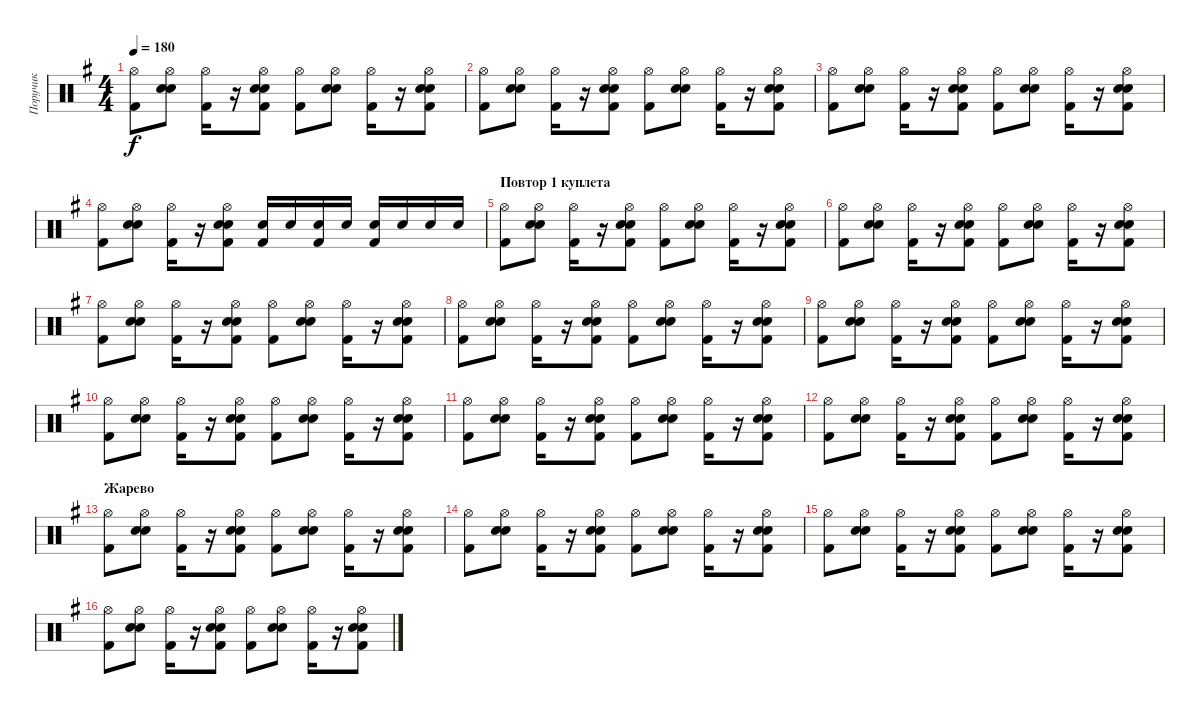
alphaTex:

\track ("Поручик" "Поручик") {instrument percussion}
\staff {score}
\articulation defaults
\ts (4 4)
\tempo 180
\clef neutral
\ks g
("Kick (hit) 2" "Hi-Hat (open)").8{dy f} ("Hi-Hat (open)" "Electric Snare (hit)" "Electric Snare (hit)").8 ("Kick (hit) 2" "Hi-Hat (open)").16 r.16 ("Kick (hit) 2" "Hi-Hat (open)" "Electric Snare (hit)" "Electric Snare (hit)").8 ("Kick (hit) 2" "Hi-Hat (open)").8 ("Hi-Hat (open)" "Electric Snare (hit)" "Electric Snare (hit)").8 ("Kick (hit) 2" "Hi-Hat (open)").16 r.16 ("Kick (hit) 2" "Hi-Hat (open)" "Electric Snare (hit)" "Electric Snare (hit)").8 |
("Kick (hit) 2" "Hi-Hat (open)").8 ("Hi-Hat (open)" "Electric Snare (hit)" "Electric Snare (hit)").8 ("Kick (hit) 2" "Hi-Hat (open)").16 r.16 ("Kick (hit) 2" "Hi-Hat (open)" "Electric Snare (hit)" "Electric Snare (hit)").8 ("Kick (hit) 2" "Hi-Hat (open)").8 ("Hi-Hat (open)" "Electric Snare (hit)" "Electric Snare (hit)").8 ("Kick (hit) 2" "Hi-Hat (open)").16 r.16 ("Kick (hit) 2" "Hi-Hat (open)" "Electric Snare (hit)" "Electric Snare (hit)").8 |
("Kick (hit) 2" "Hi-Hat (open)").8 ("Hi-Hat (open)" "Electric Snare (hit)" "Electric Snare (hit)").8 ("Kick (hit) 2" "Hi-Hat (open)").16 r.16 ("Kick (hit) 2" "Hi-Hat (open)" "Electric Snare (hit)" "Electric Snare (hit)").8 ("Kick (hit) 2" "Hi-Hat (open)").8 ("Hi-Hat (open)" "Electric Snare (hit)" "Electric Snare (hit)").8 ("Kick (hit) 2" "Hi-Hat (open)").16 r.16 ("Kick (hit) 2" "Hi-Hat (open)" "Electric Snare (hit)" "Electric Snare (hit)").8 |
("Kick (hit) 2" "Hi-Hat (open)").8 ("Hi-Hat (open)" "Electric Snare (hit)" "Electric Snare (hit)").8 ("Kick (hit) 2" "Hi-Hat (open)").16 r.16 ("Kick (hit) 2" "Hi-Hat (open)" "Electric Snare (hit)" "Electric Snare (hit)").8 ("Kick (hit) 2" "Electric Snare (hit)").16 "Electric Snare (hit)".16 ("Kick (hit) 2" "Electric Snare (hit)").16 "Electric Snare (hit)".16 ("Kick (hit) 2" "Electric Snare (hit)").16 "Electric Snare (hit)".16 "Electric Snare (hit)".16 "Electric Snare (hit)".16 |
\section ("" "Повтор 1 куплета")
("Kick (hit) 2" "Hi-Hat (open)").8 ("Hi-Hat (open)" "Electric Snare (hit)" "Electric Snare (hit)").8 ("Kick (hit) 2" "Hi-Hat (open)").16 r.16 ("Kick (hit) 2" "Hi-Hat (open)" "Electric Snare (hit)" "Electric Snare (hit)").8 ("Kick (hit) 2" "Hi-Hat (open)").8 ("Hi-Hat (open)" "Electric Snare (hit)" "Electric Snare (hit)").8 ("Kick (hit) 2" "Hi-Hat (open)").16 r.16 ("Kick (hit) 2" "Hi-Hat (open)" "Electric Snare (hit)" "Electric Snare (hit)").8 |
("Kick (hit) 2" "Hi-Hat (open)").8 ("Hi-Hat (open)" "Electric Snare (hit)" "Electric Snare (hit)").8 ("Kick (hit) 2" "Hi-Hat (open)").16 r.16 ("Kick (hit) 2" "Hi-Hat (open)" "Electric Snare (hit)" "Electric Snare (hit)").8 ("Kick (hit) 2" "Hi-Hat (open)").8 ("Hi-Hat (open)" "Electric Snare (hit)" "Electric Snare (hit)").8 ("Kick (hit) 2" "Hi-Hat (open)").16 r.16 ("Kick (hit) 2" "Hi-Hat (open)" "Electric Snare (hit)" "Electric Snare (hit)").8 |
("Kick (hit) 2" "Hi-Hat (open)").8 ("Hi-Hat (open)" "Electric Snare (hit)" "Electric Snare (hit)").8 ("Kick (hit) 2" "Hi-Hat (open)").16 r.16 ("Kick (hit) 2" "Hi-Hat (open)" "Electric Snare (hit)" "Electric Snare (hit)").8 ("Kick (hit) 2" "Hi-Hat (open)").8 ("Hi-Hat (open)" "Electric Snare (hit)" "Electric Snare (hit)").8 ("Kick (hit) 2" "Hi-Hat (open)").16 r.16 ("Kick (hit) 2" "Hi-Hat (open)" "Electric Snare (hit)" "Electric Snare (hit)").8 |
("Kick (hit) 2" "Hi-Hat (open)").8 ("Hi-Hat (open)" "Electric Snare (hit)" "Electric Snare (hit)").8 ("Kick (hit) 2" "Hi-Hat (open)").16 r.16 ("Kick (hit) 2" "Hi-Hat (open)" "Electric Snare (hit)" "Electric Snare (hit)").8 ("Kick (hit) 2" "Hi-Hat (open)").8 ("Hi-Hat (open)" "Electric Snare (hit)" "Electric Snare (hit)").8 ("Kick (hit) 2" "Hi-Hat (open)").16 r.16 ("Kick (hit) 2" "Hi-Hat (open)" "Electric Snare (hit)" "Electric Snare (hit)").8 |
("Kick (hit) 2" "Hi-Hat (open)").8 ("Hi-Hat (open)" "Electric Snare (hit)" "Electric Snare (hit)").8 ("Kick (hit) 2" "Hi-Hat (open)").16 r.16 ("Kick (hit) 2" "Hi-Hat (open)" "Electric Snare (hit)" "Electric Snare (hit)").8 ("Kick (hit) 2" "Hi-Hat (open)").8 ("Hi-Hat (open)" "Electric Snare (hit)" "Electric Snare (hit)").8 ("Kick (hit) 2" "Hi-Hat (open)").16 r.16 ("Kick (hit) 2" "Hi-Hat (open)" "Electric Snare (hit)" "Electric Snare (hit)").8 |
("Kick (hit) 2" "Hi-Hat (open)").8 ("Hi-Hat (open)" "Electric Snare (hit)" "Electric Snare (hit)").8 ("Kick (hit) 2" "Hi-Hat (open)").16 r.16 ("Kick (hit) 2" "Hi-Hat (open)" "Electric Snare (hit)" "Electric Snare (hit)").8 ("Kick (hit) 2" "Hi-Hat (open)").8 ("Hi-Hat (open)" "Electric Snare (hit)" "Electric Snare (hit)").8 ("Kick (hit) 2" "Hi-Hat (open)").16 r.16 ("Kick (hit) 2" "Hi-Hat (open)" "Electric Snare (hit)" "Electric Snare (hit)").8 |
("Kick (hit) 2" "Hi-Hat (open)").8 ("Hi-Hat (open)" "Electric Snare (hit)" "Electric Snare (hit)").8 ("Kick (hit) 2" "Hi-Hat (open)").16 r.16 ("Kick (hit) 2" "Hi-Hat (open)" "Electric Snare (hit)" "Electric Snare (hit)").8 ("Kick (hit) 2" "Hi-Hat (open)").8 ("Hi-Hat (open)" "Electric Snare (hit)" "Electric Snare (hit)").8 ("Kick (hit) 2" "Hi-Hat (open)").16 r.16 ("Kick (hit) 2" "Hi-Hat (open)" "Electric Snare (hit)" "Electric Snare (hit)").8 |
("Kick (hit) 2" "Hi-Hat (open)").8 ("Hi-Hat (open)" "Electric Snare (hit)" "Electric Snare (hit)").8 ("Kick (hit) 2" "Hi-Hat (open)").16 r.16 ("Kick (hit) 2" "Hi-Hat (open)" "Electric Snare (hit)" "Electric Snare (hit)").8 ("Kick (hit) 2" "Hi-Hat (open)").8 ("Hi-Hat (open)" "Electric Snare (hit)" "Electric Snare (hit)").8 ("Kick (hit) 2" "Hi-Hat (open)").16 r.16 ("Kick (hit) 2" "Hi-Hat (open)" "Electric Snare (hit)" "Electric Snare (hit)").8 |
\section ("" "Жарево")
("Kick (hit) 2" "Hi-Hat (open)").8 ("Hi-Hat (open)" "Electric Snare (hit)" "Electric Snare (hit)").8 ("Kick (hit) 2" "Hi-Hat (open)").16 r.16 ("Kick (hit) 2" "Hi-Hat (open)" "Electric Snare (hit)" "Electric Snare (hit)").8 ("Kick (hit) 2" "Hi-Hat (open)").8 ("Hi-Hat (open)" "Electric Snare (hit)" "Electric Snare (hit)").8 ("Kick (hit) 2" "Hi-Hat (open)").16 r.16 ("Kick (hit) 2" "Hi-Hat (open)" "Electric Snare (hit)" "Electric Snare (hit)").8 |
("Kick (hit) 2" "Hi-Hat (open)").8 ("Hi-Hat (open)" "Electric Snare (hit)" "Electric Snare (hit)").8 ("Kick (hit) 2" "Hi-Hat (open)").16 r.16 ("Kick (hit) 2" "Hi-Hat (open)" "Electric Snare (hit)" "Electric Snare (hit)").8 ("Kick (hit) 2" "Hi-Hat (open)").8 ("Hi-Hat (open)" "Electric Snare (hit)" "Electric Snare (hit)").8 ("Kick (hit) 2" "Hi-Hat (open)").16 r.16 ("Kick (hit) 2" "Hi-Hat (open)" "Electric Snare (hit)" "Electric Snare (hit)").8 |
("Kick (hit) 2" "Hi-Hat (open)").8 ("Hi-Hat (open)" "Electric Snare (hit)" "Electric Snare (hit)").8 ("Kick (hit) 2" "Hi-Hat (open)").16 r.16 ("Kick (hit) 2" "Hi-Hat (open)" "Electric Snare (hit)" "Electric Snare (hit)").8 ("Kick (hit) 2" "Hi-Hat (open)").8 ("Hi-Hat (open)" "Electric Snare (hit)" "Electric Snare (hit)").8 ("Kick (hit) 2" "Hi-Hat (open)").16 r.16 ("Kick (hit) 2" "Hi-Hat (open)" "Electric Snare (hit)" "Electric Snare (hit)").8 |
("Kick (hit) 2" "Hi-Hat (open)").8 ("Hi-Hat (open)" "Electric Snare (hit)" "Electric Snare (hit)").8 ("Kick (hit) 2" "Hi-Hat (open)").16 r.16 ("Kick (hit) 2" "Hi-Hat (open)" "Electric Snare (hit)" "Electric Snare (hit)").8 ("Kick (hit) 2" "Hi-Hat (open)").8 ("Hi-Hat (open)" "Electric Snare (hit)" "Electric Snare (hit)").8 ("Kick (hit) 2" "Hi-Hat (open)").16 r.16 ("Kick (hit) 2" "Hi-Hat (open)" "Electric Snare (hit)" "Electric Snare (hit)").8
